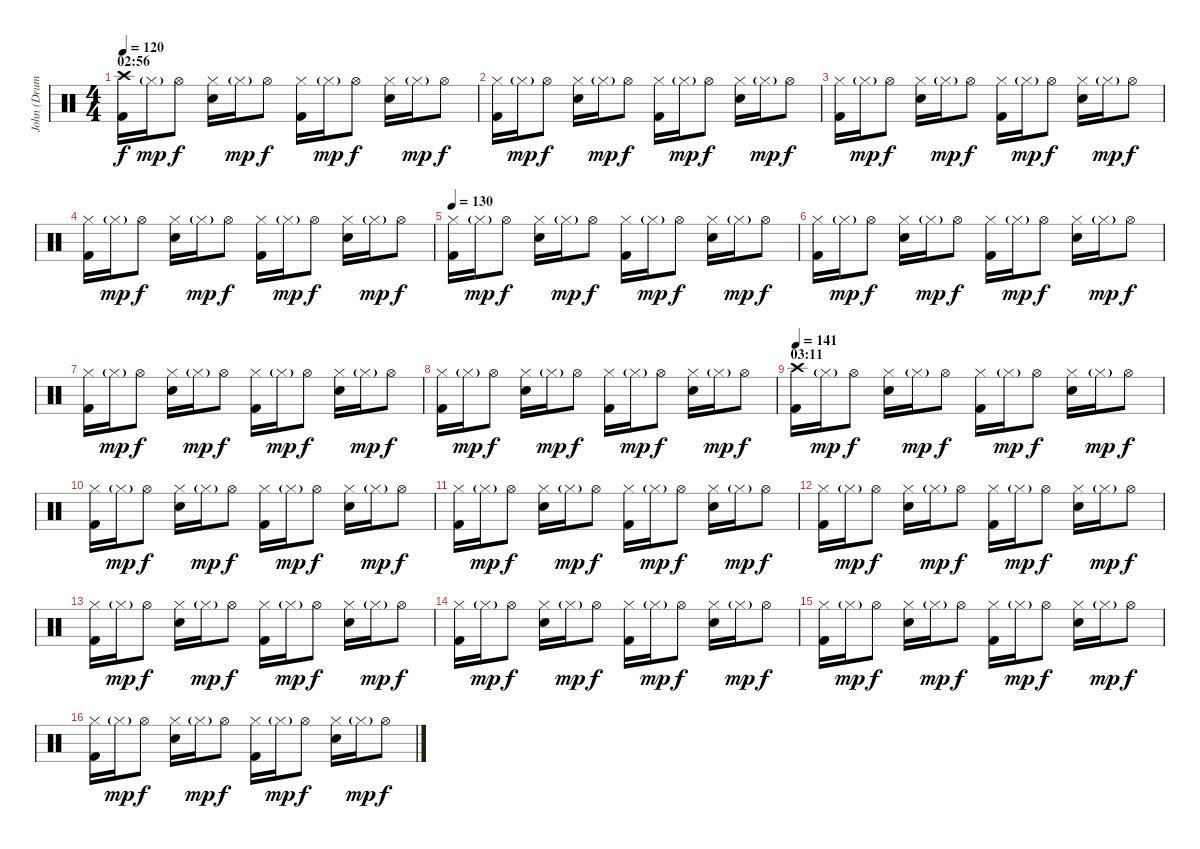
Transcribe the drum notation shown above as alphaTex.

\track ("John (Drums)" "John (Drum") {instrument percussion}
\staff {score}
\articulation defaults
\ts (4 4)
\section ("" "02:56")
\tempo 120
\clef neutral
\ks c
("Crash high (hit)" "Kick (hit) 2").16{dy f} "Hi-Hat (closed)"{g}.16{dy mp} "Hi-Hat (open)".8{dy f} ("Hi-Hat (closed)" "Snare (hit) 2").16 "Hi-Hat (closed)"{g}.16{dy mp} "Hi-Hat (open)".8{dy f} ("Hi-Hat (closed)" "Kick (hit) 2").16 "Hi-Hat (closed)"{g}.16{dy mp} "Hi-Hat (open)".8{dy f} ("Hi-Hat (closed)" "Snare (hit) 2").16 "Hi-Hat (closed)"{g}.16{dy mp} "Hi-Hat (open)".8{dy f} |
("Hi-Hat (closed)" "Kick (hit) 2").16 "Hi-Hat (closed)"{g}.16{dy mp} "Hi-Hat (open)".8{dy f} ("Hi-Hat (closed)" "Snare (hit) 2").16 "Hi-Hat (closed)"{g}.16{dy mp} "Hi-Hat (open)".8{dy f} ("Hi-Hat (closed)" "Kick (hit) 2").16 "Hi-Hat (closed)"{g}.16{dy mp} "Hi-Hat (open)".8{dy f} ("Hi-Hat (closed)" "Snare (hit) 2").16 "Hi-Hat (closed)"{g}.16{dy mp} "Hi-Hat (open)".8{dy f} |
("Hi-Hat (closed)" "Kick (hit) 2").16 "Hi-Hat (closed)"{g}.16{dy mp} "Hi-Hat (open)".8{dy f} ("Hi-Hat (closed)" "Snare (hit) 2").16 "Hi-Hat (closed)"{g}.16{dy mp} "Hi-Hat (open)".8{dy f} ("Hi-Hat (closed)" "Kick (hit) 2").16 "Hi-Hat (closed)"{g}.16{dy mp} "Hi-Hat (open)".8{dy f} ("Hi-Hat (closed)" "Snare (hit) 2").16 "Hi-Hat (closed)"{g}.16{dy mp} "Hi-Hat (open)".8{dy f} |
("Hi-Hat (closed)" "Kick (hit) 2").16 "Hi-Hat (closed)"{g}.16{dy mp} "Hi-Hat (open)".8{dy f} ("Hi-Hat (closed)" "Snare (hit) 2").16 "Hi-Hat (closed)"{g}.16{dy mp} "Hi-Hat (open)".8{dy f} ("Hi-Hat (closed)" "Kick (hit) 2").16 "Hi-Hat (closed)"{g}.16{dy mp} "Hi-Hat (open)".8{dy f} ("Hi-Hat (closed)" "Snare (hit) 2").16 "Hi-Hat (closed)"{g}.16{dy mp} "Hi-Hat (open)".8{dy f} |
\tempo 130
("Hi-Hat (closed)" "Kick (hit) 2").16 "Hi-Hat (closed)"{g}.16{dy mp} "Hi-Hat (open)".8{dy f} ("Hi-Hat (closed)" "Snare (hit) 2").16 "Hi-Hat (closed)"{g}.16{dy mp} "Hi-Hat (open)".8{dy f} ("Hi-Hat (closed)" "Kick (hit) 2").16 "Hi-Hat (closed)"{g}.16{dy mp} "Hi-Hat (open)".8{dy f} ("Hi-Hat (closed)" "Snare (hit) 2").16 "Hi-Hat (closed)"{g}.16{dy mp} "Hi-Hat (open)".8{dy f} |
("Hi-Hat (closed)" "Kick (hit) 2").16 "Hi-Hat (closed)"{g}.16{dy mp} "Hi-Hat (open)".8{dy f} ("Hi-Hat (closed)" "Snare (hit) 2").16 "Hi-Hat (closed)"{g}.16{dy mp} "Hi-Hat (open)".8{dy f} ("Hi-Hat (closed)" "Kick (hit) 2").16 "Hi-Hat (closed)"{g}.16{dy mp} "Hi-Hat (open)".8{dy f} ("Hi-Hat (closed)" "Snare (hit) 2").16 "Hi-Hat (closed)"{g}.16{dy mp} "Hi-Hat (open)".8{dy f} |
("Hi-Hat (closed)" "Kick (hit) 2").16 "Hi-Hat (closed)"{g}.16{dy mp} "Hi-Hat (open)".8{dy f} ("Hi-Hat (closed)" "Snare (hit) 2").16 "Hi-Hat (closed)"{g}.16{dy mp} "Hi-Hat (open)".8{dy f} ("Hi-Hat (closed)" "Kick (hit) 2").16 "Hi-Hat (closed)"{g}.16{dy mp} "Hi-Hat (open)".8{dy f} ("Hi-Hat (closed)" "Snare (hit) 2").16 "Hi-Hat (closed)"{g}.16{dy mp} "Hi-Hat (open)".8{dy f} |
("Hi-Hat (closed)" "Kick (hit) 2").16 "Hi-Hat (closed)"{g}.16{dy mp} "Hi-Hat (open)".8{dy f} ("Hi-Hat (closed)" "Snare (hit) 2").16 "Hi-Hat (closed)"{g}.16{dy mp} "Hi-Hat (open)".8{dy f} ("Hi-Hat (closed)" "Kick (hit) 2").16 "Hi-Hat (closed)"{g}.16{dy mp} "Hi-Hat (open)".8{dy f} ("Hi-Hat (closed)" "Snare (hit) 2").16 "Hi-Hat (closed)"{g}.16{dy mp} "Hi-Hat (open)".8{dy f} |
\section ("" "03:11")
\tempo 141
("Crash high (hit)" "Kick (hit) 2").16 "Hi-Hat (closed)"{g}.16{dy mp} "Hi-Hat (open)".8{dy f} ("Hi-Hat (closed)" "Snare (hit) 2").16 "Hi-Hat (closed)"{g}.16{dy mp} "Hi-Hat (open)".8{dy f} ("Hi-Hat (closed)" "Kick (hit) 2").16 "Hi-Hat (closed)"{g}.16{dy mp} "Hi-Hat (open)".8{dy f} ("Hi-Hat (closed)" "Snare (hit) 2").16 "Hi-Hat (closed)"{g}.16{dy mp} "Hi-Hat (open)".8{dy f} |
("Hi-Hat (closed)" "Kick (hit) 2").16 "Hi-Hat (closed)"{g}.16{dy mp} "Hi-Hat (open)".8{dy f} ("Hi-Hat (closed)" "Snare (hit) 2").16 "Hi-Hat (closed)"{g}.16{dy mp} "Hi-Hat (open)".8{dy f} ("Hi-Hat (closed)" "Kick (hit) 2").16 "Hi-Hat (closed)"{g}.16{dy mp} "Hi-Hat (open)".8{dy f} ("Hi-Hat (closed)" "Snare (hit) 2").16 "Hi-Hat (closed)"{g}.16{dy mp} "Hi-Hat (open)".8{dy f} |
("Hi-Hat (closed)" "Kick (hit) 2").16 "Hi-Hat (closed)"{g}.16{dy mp} "Hi-Hat (open)".8{dy f} ("Hi-Hat (closed)" "Snare (hit) 2").16 "Hi-Hat (closed)"{g}.16{dy mp} "Hi-Hat (open)".8{dy f} ("Hi-Hat (closed)" "Kick (hit) 2").16 "Hi-Hat (closed)"{g}.16{dy mp} "Hi-Hat (open)".8{dy f} ("Hi-Hat (closed)" "Snare (hit) 2").16 "Hi-Hat (closed)"{g}.16{dy mp} "Hi-Hat (open)".8{dy f} |
("Hi-Hat (closed)" "Kick (hit) 2").16 "Hi-Hat (closed)"{g}.16{dy mp} "Hi-Hat (open)".8{dy f} ("Hi-Hat (closed)" "Snare (hit) 2").16 "Hi-Hat (closed)"{g}.16{dy mp} "Hi-Hat (open)".8{dy f} ("Hi-Hat (closed)" "Kick (hit) 2").16 "Hi-Hat (closed)"{g}.16{dy mp} "Hi-Hat (open)".8{dy f} ("Hi-Hat (closed)" "Snare (hit) 2").16 "Hi-Hat (closed)"{g}.16{dy mp} "Hi-Hat (open)".8{dy f} |
("Hi-Hat (closed)" "Kick (hit) 2").16 "Hi-Hat (closed)"{g}.16{dy mp} "Hi-Hat (open)".8{dy f} ("Hi-Hat (closed)" "Snare (hit) 2").16 "Hi-Hat (closed)"{g}.16{dy mp} "Hi-Hat (open)".8{dy f} ("Hi-Hat (closed)" "Kick (hit) 2").16 "Hi-Hat (closed)"{g}.16{dy mp} "Hi-Hat (open)".8{dy f} ("Hi-Hat (closed)" "Snare (hit) 2").16 "Hi-Hat (closed)"{g}.16{dy mp} "Hi-Hat (open)".8{dy f} |
("Hi-Hat (closed)" "Kick (hit) 2").16 "Hi-Hat (closed)"{g}.16{dy mp} "Hi-Hat (open)".8{dy f} ("Hi-Hat (closed)" "Snare (hit) 2").16 "Hi-Hat (closed)"{g}.16{dy mp} "Hi-Hat (open)".8{dy f} ("Hi-Hat (closed)" "Kick (hit) 2").16 "Hi-Hat (closed)"{g}.16{dy mp} "Hi-Hat (open)".8{dy f} ("Hi-Hat (closed)" "Snare (hit) 2").16 "Hi-Hat (closed)"{g}.16{dy mp} "Hi-Hat (open)".8{dy f} |
("Hi-Hat (closed)" "Kick (hit) 2").16 "Hi-Hat (closed)"{g}.16{dy mp} "Hi-Hat (open)".8{dy f} ("Hi-Hat (closed)" "Snare (hit) 2").16 "Hi-Hat (closed)"{g}.16{dy mp} "Hi-Hat (open)".8{dy f} ("Hi-Hat (closed)" "Kick (hit) 2").16 "Hi-Hat (closed)"{g}.16{dy mp} "Hi-Hat (open)".8{dy f} ("Hi-Hat (closed)" "Snare (hit) 2").16 "Hi-Hat (closed)"{g}.16{dy mp} "Hi-Hat (open)".8{dy f} |
("Hi-Hat (closed)" "Kick (hit) 2").16 "Hi-Hat (closed)"{g}.16{dy mp} "Hi-Hat (open)".8{dy f} ("Hi-Hat (closed)" "Snare (hit) 2").16 "Hi-Hat (closed)"{g}.16{dy mp} "Hi-Hat (open)".8{dy f} ("Hi-Hat (closed)" "Kick (hit) 2").16 "Hi-Hat (closed)"{g}.16{dy mp} "Hi-Hat (open)".8{dy f} ("Hi-Hat (closed)" "Snare (hit) 2").16 "Hi-Hat (closed)"{g}.16{dy mp} "Hi-Hat (open)".8{dy f}
